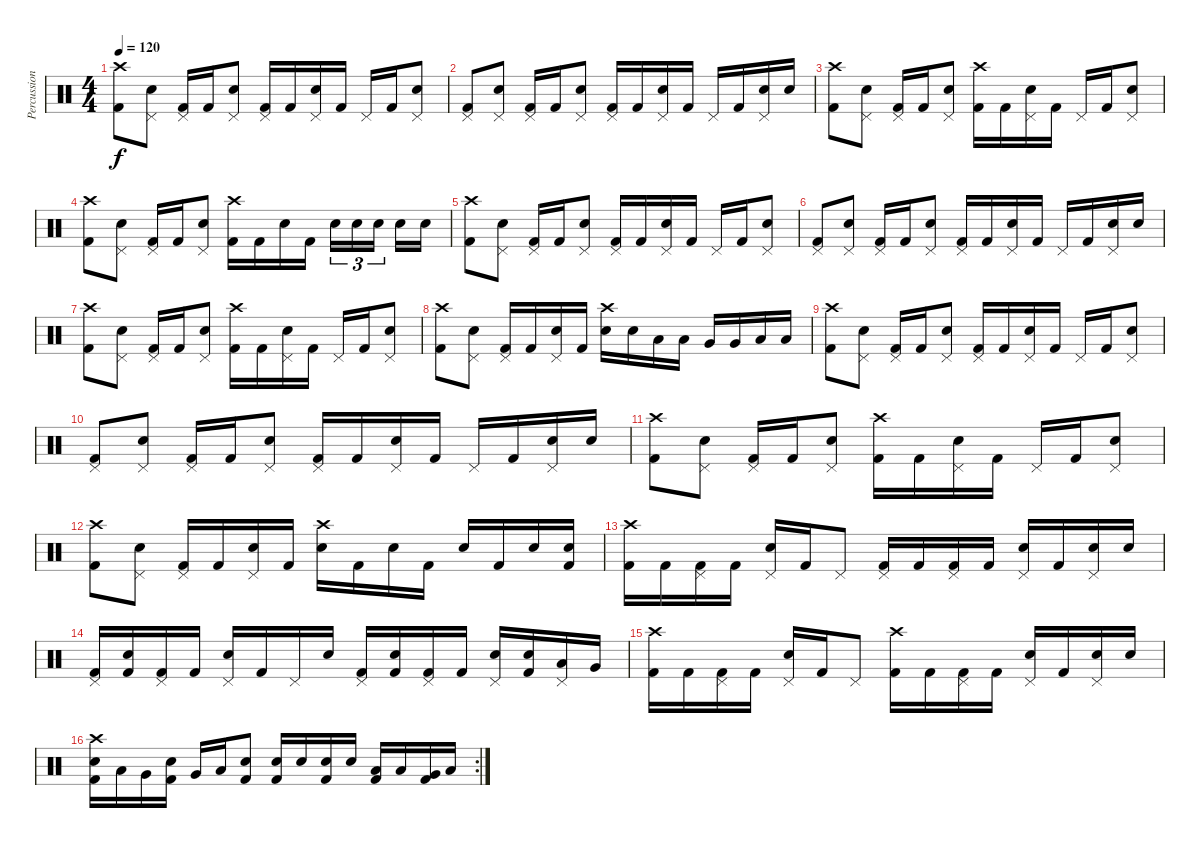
\track ("Percussion" "Percussion") {instrument percussion}
\staff {score}
\articulation defaults
\ts (4 4)
\tempo 120
\clef neutral
\ks c
("Crash high (hit)" "Kick (hit) 2").8{dy f} ("Pedal Hi-Hat (hit)" "Electric Snare (hit)").8 ("Pedal Hi-Hat (hit)" "Kick (hit) 2").16 "Kick (hit) 2".16 ("Pedal Hi-Hat (hit)" "Electric Snare (hit)").8 ("Pedal Hi-Hat (hit)" "Kick (hit) 2").16 "Kick (hit) 2".16 ("Pedal Hi-Hat (hit)" "Electric Snare (hit)").16 "Kick (hit) 2".16 "Pedal Hi-Hat (hit)".16 "Kick (hit) 2".16 ("Pedal Hi-Hat (hit)" "Electric Snare (hit)").8 |
("Pedal Hi-Hat (hit)" "Kick (hit) 2").8 ("Pedal Hi-Hat (hit)" "Electric Snare (hit)").8 ("Pedal Hi-Hat (hit)" "Kick (hit) 2").16 "Kick (hit) 2".16 ("Pedal Hi-Hat (hit)" "Electric Snare (hit)").8 ("Pedal Hi-Hat (hit)" "Kick (hit) 2").16 "Kick (hit) 2".16 ("Pedal Hi-Hat (hit)" "Electric Snare (hit)").16 "Kick (hit) 2".16 "Pedal Hi-Hat (hit)".16 "Kick (hit) 2".16 ("Pedal Hi-Hat (hit)" "Electric Snare (hit)").16 "Electric Snare (hit)".16 |
("Crash high (hit)" "Kick (hit) 2").8 ("Pedal Hi-Hat (hit)" "Electric Snare (hit)").8 ("Pedal Hi-Hat (hit)" "Kick (hit) 2").16 "Kick (hit) 2".16 ("Pedal Hi-Hat (hit)" "Electric Snare (hit)").8 ("Crash high (hit)" "Kick (hit) 2").16 "Kick (hit) 2".16 ("Pedal Hi-Hat (hit)" "Electric Snare (hit)").16 "Kick (hit) 2".16 "Pedal Hi-Hat (hit)".16 "Kick (hit) 2".16 ("Pedal Hi-Hat (hit)" "Electric Snare (hit)").8 |
("Crash high (hit)" "Kick (hit) 2").8 ("Pedal Hi-Hat (hit)" "Electric Snare (hit)").8 ("Pedal Hi-Hat (hit)" "Kick (hit) 2").16 "Kick (hit) 2".16 ("Pedal Hi-Hat (hit)" "Electric Snare (hit)").8 ("Crash high (hit)" "Kick (hit) 2").16 "Kick (hit) 2".16 "Electric Snare (hit)".16 "Kick (hit) 2".16 "Electric Snare (hit)".16{tu (3 2)} "Electric Snare (hit)".16{tu (3 2)} "Electric Snare (hit)".16{tu (3 2) beam splitsecondary} "Electric Snare (hit)".16 "Electric Snare (hit)".16 |
("Crash high (hit)" "Kick (hit) 2").8 ("Pedal Hi-Hat (hit)" "Electric Snare (hit)").8 ("Pedal Hi-Hat (hit)" "Kick (hit) 2").16 "Kick (hit) 2".16 ("Pedal Hi-Hat (hit)" "Electric Snare (hit)").8 ("Pedal Hi-Hat (hit)" "Kick (hit) 2").16 "Kick (hit) 2".16 ("Pedal Hi-Hat (hit)" "Electric Snare (hit)").16 "Kick (hit) 2".16 "Pedal Hi-Hat (hit)".16 "Kick (hit) 2".16 ("Pedal Hi-Hat (hit)" "Electric Snare (hit)").8 |
("Pedal Hi-Hat (hit)" "Kick (hit) 2").8 ("Pedal Hi-Hat (hit)" "Electric Snare (hit)").8 ("Pedal Hi-Hat (hit)" "Kick (hit) 2").16 "Kick (hit) 2".16 ("Pedal Hi-Hat (hit)" "Electric Snare (hit)").8 ("Pedal Hi-Hat (hit)" "Kick (hit) 2").16 "Kick (hit) 2".16 ("Pedal Hi-Hat (hit)" "Electric Snare (hit)").16 "Kick (hit) 2".16 "Pedal Hi-Hat (hit)".16 "Kick (hit) 2".16 ("Pedal Hi-Hat (hit)" "Electric Snare (hit)").16 "Electric Snare (hit)".16 |
("Crash high (hit)" "Kick (hit) 2").8 ("Pedal Hi-Hat (hit)" "Electric Snare (hit)").8 ("Pedal Hi-Hat (hit)" "Kick (hit) 2").16 "Kick (hit) 2".16 ("Pedal Hi-Hat (hit)" "Electric Snare (hit)").8 ("Crash high (hit)" "Kick (hit) 2").16 "Kick (hit) 2".16 ("Pedal Hi-Hat (hit)" "Electric Snare (hit)").16 "Kick (hit) 2".16 "Pedal Hi-Hat (hit)".16 "Kick (hit) 2".16 ("Pedal Hi-Hat (hit)" "Electric Snare (hit)").8 |
("Crash high (hit)" "Kick (hit) 2").8 ("Pedal Hi-Hat (hit)" "Electric Snare (hit)").8 ("Pedal Hi-Hat (hit)" "Kick (hit) 2").16 "Kick (hit) 2".16 ("Pedal Hi-Hat (hit)" "Electric Snare (hit)").16 "Kick (hit) 2".16 ("Crash high (hit)" "Electric Snare (hit)").16 "Electric Snare (hit)".16 "Low Tom (hit)".16 "Low Tom (hit)".16 "Very Low Tom (hit)".16 "Very Low Tom (hit)".16 "Low Floor Tom (hit)".16 "Low Floor Tom (hit)".16 |
("Crash high (hit)" "Kick (hit) 2").8 ("Pedal Hi-Hat (hit)" "Electric Snare (hit)").8 ("Pedal Hi-Hat (hit)" "Kick (hit) 2").16 "Kick (hit) 2".16 ("Pedal Hi-Hat (hit)" "Electric Snare (hit)").8 ("Pedal Hi-Hat (hit)" "Kick (hit) 2").16 "Kick (hit) 2".16 ("Pedal Hi-Hat (hit)" "Electric Snare (hit)").16 "Kick (hit) 2".16 "Pedal Hi-Hat (hit)".16 "Kick (hit) 2".16 ("Pedal Hi-Hat (hit)" "Electric Snare (hit)").8 |
("Pedal Hi-Hat (hit)" "Kick (hit) 2").8 ("Pedal Hi-Hat (hit)" "Electric Snare (hit)").8 ("Pedal Hi-Hat (hit)" "Kick (hit) 2").16 "Kick (hit) 2".16 ("Pedal Hi-Hat (hit)" "Electric Snare (hit)").8 ("Pedal Hi-Hat (hit)" "Kick (hit) 2").16 "Kick (hit) 2".16 ("Pedal Hi-Hat (hit)" "Electric Snare (hit)").16 "Kick (hit) 2".16 "Pedal Hi-Hat (hit)".16 "Kick (hit) 2".16 ("Pedal Hi-Hat (hit)" "Electric Snare (hit)").16 "Electric Snare (hit)".16 |
("Crash high (hit)" "Kick (hit) 2").8 ("Pedal Hi-Hat (hit)" "Electric Snare (hit)").8 ("Pedal Hi-Hat (hit)" "Kick (hit) 2").16 "Kick (hit) 2".16 ("Pedal Hi-Hat (hit)" "Electric Snare (hit)").8 ("Crash high (hit)" "Kick (hit) 2").16 "Kick (hit) 2".16 ("Pedal Hi-Hat (hit)" "Electric Snare (hit)").16 "Kick (hit) 2".16 "Pedal Hi-Hat (hit)".16 "Kick (hit) 2".16 ("Pedal Hi-Hat (hit)" "Electric Snare (hit)").8 |
("Crash high (hit)" "Kick (hit) 2").8 ("Pedal Hi-Hat (hit)" "Electric Snare (hit)").8 ("Pedal Hi-Hat (hit)" "Kick (hit) 2").16 "Kick (hit) 2".16 ("Pedal Hi-Hat (hit)" "Electric Snare (hit)").16 "Kick (hit) 2".16 ("Crash high (hit)" "Electric Snare (hit)").16 "Kick (hit) 2".16 "Electric Snare (hit)".16 "Kick (hit) 2".16 "Electric Snare (hit)".16 "Kick (hit) 2".16 "Electric Snare (hit)".16 ("Electric Snare (hit)" "Kick (hit) 2").16 |
("Crash high (hit)" "Kick (hit) 2").16 "Kick (hit) 2".16 ("Pedal Hi-Hat (hit)" "Kick (hit) 2").16 "Kick (hit) 2".16 ("Pedal Hi-Hat (hit)" "Electric Snare (hit)").16 "Kick (hit) 2".16 "Pedal Hi-Hat (hit)".8 ("Pedal Hi-Hat (hit)" "Kick (hit) 2").16 "Kick (hit) 2".16 ("Pedal Hi-Hat (hit)" "Kick (hit) 2").16 "Kick (hit) 2".16 ("Pedal Hi-Hat (hit)" "Electric Snare (hit)").16 "Kick (hit) 2".16 ("Pedal Hi-Hat (hit)" "Electric Snare (hit)").16 "Electric Snare (hit)".16 |
("Pedal Hi-Hat (hit)" "Kick (hit) 2").16 ("Electric Snare (hit)" "Kick (hit) 2").16 ("Pedal Hi-Hat (hit)" "Kick (hit) 2").16 "Kick (hit) 2".16 ("Pedal Hi-Hat (hit)" "Electric Snare (hit)").16 "Kick (hit) 2".16 "Pedal Hi-Hat (hit)".16 "Electric Snare (hit)".16 ("Pedal Hi-Hat (hit)" "Kick (hit) 2").16 ("Electric Snare (hit)" "Kick (hit) 2").16 ("Pedal Hi-Hat (hit)" "Kick (hit) 2").16 "Kick (hit) 2".16 ("Pedal Hi-Hat (hit)" "Electric Snare (hit)").16 ("Electric Snare (hit)" "Kick (hit) 2").16 ("Pedal Hi-Hat (hit)" "Low Tom (hit)").16 "Very Low Tom (hit)".16 |
("Crash high (hit)" "Kick (hit) 2").16 "Kick (hit) 2".16 ("Pedal Hi-Hat (hit)" "Kick (hit) 2").16 "Kick (hit) 2".16 ("Pedal Hi-Hat (hit)" "Electric Snare (hit)").16 "Kick (hit) 2".16 "Pedal Hi-Hat (hit)".8 ("Crash high (hit)" "Kick (hit) 2").16 "Kick (hit) 2".16 ("Pedal Hi-Hat (hit)" "Kick (hit) 2").16 "Kick (hit) 2".16 ("Pedal Hi-Hat (hit)" "Electric Snare (hit)").16 "Kick (hit) 2".16 ("Pedal Hi-Hat (hit)" "Electric Snare (hit)").16 "Electric Snare (hit)".16 |
\rc 2
("Crash high (hit)" "Electric Snare (hit)" "Kick (hit) 2").16 "Low Tom (hit)".16 "Very Low Tom (hit)".16 ("Electric Snare (hit)" "Kick (hit) 2").16 "Very Low Tom (hit)".16 "Low Floor Tom (hit)".16 ("Electric Snare (hit)" "Kick (hit) 2").8 ("Electric Snare (hit)" "Kick (hit) 2").16 "Electric Snare (hit)".16 ("Electric Snare (hit)" "Kick (hit) 2").16 "Electric Snare (hit)".16 ("Low Tom (hit)" "Kick (hit) 2").16 "Low Tom (hit)".16 ("Very Low Tom (hit)" "Kick (hit) 2").16 "Low Floor Tom (hit)".16
